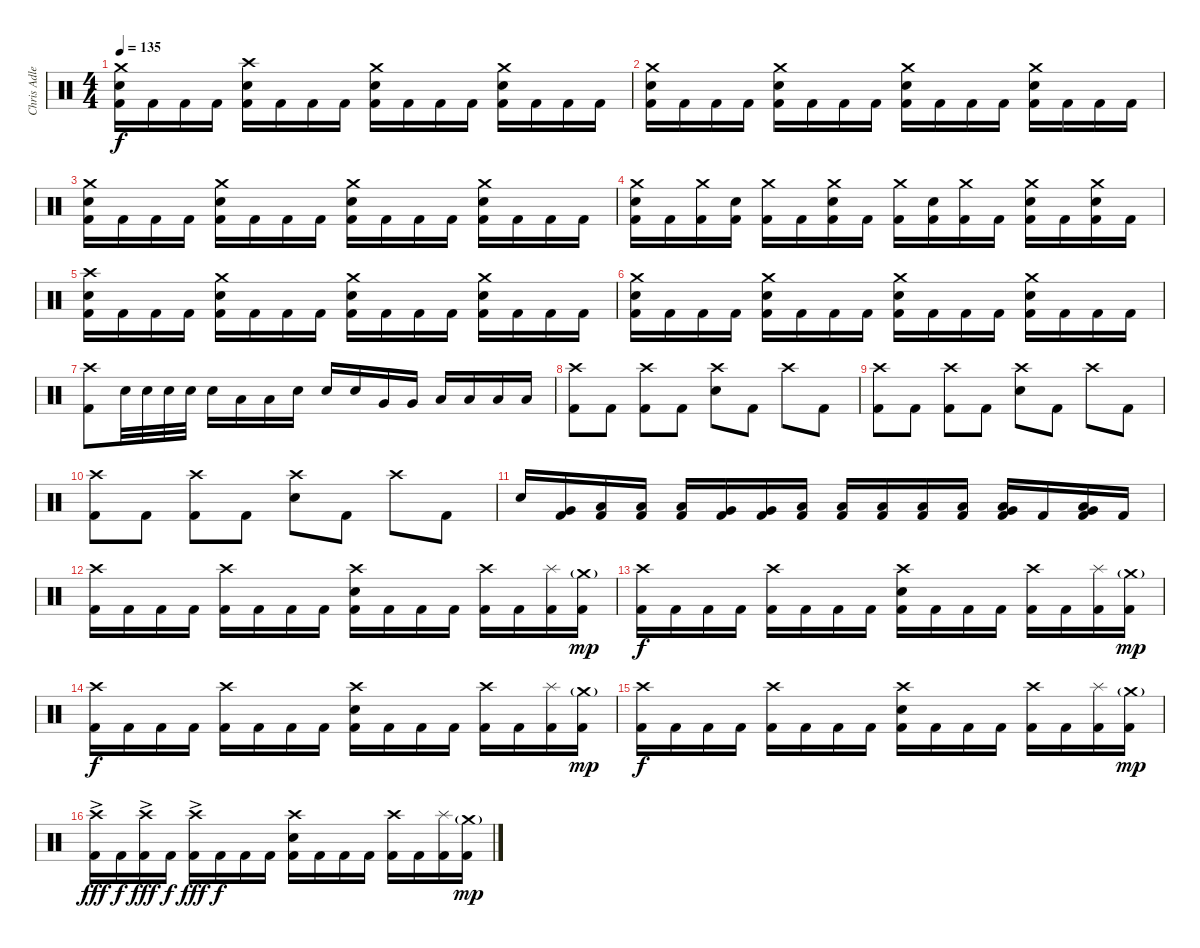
\track ("Chris Adler Drums)" "Chris Adle") {instrument percussion}
\staff {score}
\articulation defaults
\ts (4 4)
\tempo 135
\clef neutral
\ks c
("Crash medium (hit)" "Snare (hit) 2" "Kick (hit) 2").16{dy f} "Kick (hit) 2".16 "Kick (hit) 2".16 "Kick (hit) 2".16 ("Crash high (hit)" "Snare (hit) 2" "Kick (hit) 2").16 "Kick (hit) 2".16 "Kick (hit) 2".16 "Kick (hit) 2".16 ("Crash medium (hit)" "Snare (hit) 2" "Kick (hit) 2").16 "Kick (hit) 2".16 "Kick (hit) 2".16 "Kick (hit) 2".16 ("Crash medium (hit)" "Snare (hit) 2" "Kick (hit) 2").16 "Kick (hit) 2".16 "Kick (hit) 2".16 "Kick (hit) 2".16 |
("Crash medium (hit)" "Snare (hit) 2" "Kick (hit) 2").16 "Kick (hit) 2".16 "Kick (hit) 2".16 "Kick (hit) 2".16 ("Crash medium (hit)" "Snare (hit) 2" "Kick (hit) 2").16 "Kick (hit) 2".16 "Kick (hit) 2".16 "Kick (hit) 2".16 ("Crash medium (hit)" "Snare (hit) 2" "Kick (hit) 2").16 "Kick (hit) 2".16 "Kick (hit) 2".16 "Kick (hit) 2".16 ("Crash medium (hit)" "Snare (hit) 2" "Kick (hit) 2").16 "Kick (hit) 2".16 "Kick (hit) 2".16 "Kick (hit) 2".16 |
("Crash medium (hit)" "Snare (hit) 2" "Kick (hit) 2").16 "Kick (hit) 2".16 "Kick (hit) 2".16 "Kick (hit) 2".16 ("Crash medium (hit)" "Snare (hit) 2" "Kick (hit) 2").16 "Kick (hit) 2".16 "Kick (hit) 2".16 "Kick (hit) 2".16 ("Crash medium (hit)" "Snare (hit) 2" "Kick (hit) 2").16 "Kick (hit) 2".16 "Kick (hit) 2".16 "Kick (hit) 2".16 ("Crash medium (hit)" "Snare (hit) 2" "Kick (hit) 2").16 "Kick (hit) 2".16 "Kick (hit) 2".16 "Kick (hit) 2".16 |
("Crash medium (hit)" "Snare (hit) 2" "Kick (hit) 2").16 "Kick (hit) 2".16 ("Crash medium (hit)" "Kick (hit) 2").16 ("Snare (hit) 2" "Kick (hit) 2").16 ("Crash medium (hit)" "Kick (hit) 2").16 "Kick (hit) 2".16 ("Crash medium (hit)" "Snare (hit) 2" "Kick (hit) 2").16 "Kick (hit) 2".16 ("Crash medium (hit)" "Kick (hit) 2").16 ("Snare (hit) 2" "Kick (hit) 2").16 ("Crash medium (hit)" "Kick (hit) 2").16 "Kick (hit) 2".16 ("Crash medium (hit)" "Snare (hit) 2" "Kick (hit) 2").16 "Kick (hit) 2".16 ("Crash medium (hit)" "Snare (hit) 2" "Kick (hit) 2").16 "Kick (hit) 2".16 |
("Crash high (hit)" "Snare (hit) 2" "Kick (hit) 2").16 "Kick (hit) 2".16 "Kick (hit) 2".16 "Kick (hit) 2".16 ("Crash medium (hit)" "Snare (hit) 2" "Kick (hit) 2").16 "Kick (hit) 2".16 "Kick (hit) 2".16 "Kick (hit) 2".16 ("Crash medium (hit)" "Snare (hit) 2" "Kick (hit) 2").16 "Kick (hit) 2".16 "Kick (hit) 2".16 "Kick (hit) 2".16 ("Crash medium (hit)" "Snare (hit) 2" "Kick (hit) 2").16 "Kick (hit) 2".16 "Kick (hit) 2".16 "Kick (hit) 2".16 |
("Crash medium (hit)" "Snare (hit) 2" "Kick (hit) 2").16 "Kick (hit) 2".16 "Kick (hit) 2".16 "Kick (hit) 2".16 ("Crash medium (hit)" "Snare (hit) 2" "Kick (hit) 2").16 "Kick (hit) 2".16 "Kick (hit) 2".16 "Kick (hit) 2".16 ("Crash medium (hit)" "Snare (hit) 2" "Kick (hit) 2").16 "Kick (hit) 2".16 "Kick (hit) 2".16 "Kick (hit) 2".16 ("Crash medium (hit)" "Snare (hit) 2" "Kick (hit) 2").16 "Kick (hit) 2".16 "Kick (hit) 2".16 "Kick (hit) 2".16 |
("Kick (hit) 2" "Crash high (hit)").8 "Snare (hit) 2".32 "Snare (hit) 2".32 "Snare (hit) 2".32 "Snare (hit) 2".32 "Snare (hit) 2".16 "Low Tom (hit)".16 "Low Tom (hit)".16 "Snare (hit) 2".16 "Snare (hit) 2".16 "Snare (hit) 2".16 "Very Low Tom (hit)".16 "Very Low Tom (hit)".16 "Low Floor Tom (hit)".16 "Low Floor Tom (hit)".16 "Low Floor Tom (hit)".16 "Low Floor Tom (hit)".16 |
("Crash high (hit)" "Kick (hit) 2").8 "Kick (hit) 2".8 ("Crash high (hit)" "Kick (hit) 2").8 "Kick (hit) 2".8 ("Crash high (hit)" "Snare (hit) 2").8 "Kick (hit) 2".8 "Crash high (hit)".8 "Kick (hit) 2".8 |
("Crash high (hit)" "Kick (hit) 2").8 "Kick (hit) 2".8 ("Crash high (hit)" "Kick (hit) 2").8 "Kick (hit) 2".8 ("Crash high (hit)" "Snare (hit) 2").8 "Kick (hit) 2".8 "Crash high (hit)".8 "Kick (hit) 2".8 |
("Crash high (hit)" "Kick (hit) 2").8 "Kick (hit) 2".8 ("Crash high (hit)" "Kick (hit) 2").8 "Kick (hit) 2".8 ("Crash high (hit)" "Snare (hit) 2").8 "Kick (hit) 2".8 "Crash high (hit)".8 "Kick (hit) 2".8 |
"Snare (hit) 2".16 ("Kick (hit) 2" "Very Low Tom (hit)").16 ("Kick (hit) 2" "Low Floor Tom (hit)").16 ("Kick (hit) 2" "Low Floor Tom (hit)").16 ("Kick (hit) 2" "Low Floor Tom (hit)").16 ("Kick (hit) 2" "Very Low Tom (hit)").16 ("Kick (hit) 2" "Very Low Tom (hit)").16 ("Kick (hit) 2" "Low Floor Tom (hit)").16 ("Kick (hit) 2" "Low Floor Tom (hit)").16 ("Kick (hit) 2" "Low Floor Tom (hit)").16 ("Kick (hit) 2" "Low Floor Tom (hit)").16 ("Kick (hit) 2" "Low Floor Tom (hit)").16 ("Kick (hit) 2" "Low Tom (hit)" "Very Low Tom (hit)").16 "Kick (hit) 2".16 ("Kick (hit) 2" "Very Low Tom (hit)" "Low Tom (hit)").16 "Kick (hit) 2".16 |
("Crash high (hit)" "Kick (hit) 2").16 "Kick (hit) 2".16 "Kick (hit) 2".16 "Kick (hit) 2".16 ("Crash high (hit)" "Kick (hit) 2").16 "Kick (hit) 2".16 "Kick (hit) 2".16 "Kick (hit) 2".16 ("Crash high (hit)" "Snare (hit) 2" "Kick (hit) 2").16 "Kick (hit) 2".16 "Kick (hit) 2".16 "Kick (hit) 2".16 ("Crash high (hit)" "Kick (hit) 2").16 "Kick (hit) 2".16 ("Splash (hit)" "Kick (hit) 2").16 ("Crash medium (hit)"{g} "Kick (hit) 2").16{dy mp} |
("Crash high (hit)" "Kick (hit) 2").16{dy f} "Kick (hit) 2".16 "Kick (hit) 2".16 "Kick (hit) 2".16 ("Crash high (hit)" "Kick (hit) 2").16 "Kick (hit) 2".16 "Kick (hit) 2".16 "Kick (hit) 2".16 ("Crash high (hit)" "Snare (hit) 2" "Kick (hit) 2").16 "Kick (hit) 2".16 "Kick (hit) 2".16 "Kick (hit) 2".16 ("Crash high (hit)" "Kick (hit) 2").16 "Kick (hit) 2".16 ("Splash (hit)" "Kick (hit) 2").16 ("Crash medium (hit)"{g} "Kick (hit) 2").16{dy mp} |
("Crash high (hit)" "Kick (hit) 2").16{dy f} "Kick (hit) 2".16 "Kick (hit) 2".16 "Kick (hit) 2".16 ("Crash high (hit)" "Kick (hit) 2").16 "Kick (hit) 2".16 "Kick (hit) 2".16 "Kick (hit) 2".16 ("Crash high (hit)" "Snare (hit) 2" "Kick (hit) 2").16 "Kick (hit) 2".16 "Kick (hit) 2".16 "Kick (hit) 2".16 ("Crash high (hit)" "Kick (hit) 2").16 "Kick (hit) 2".16 ("Splash (hit)" "Kick (hit) 2").16 ("Crash medium (hit)"{g} "Kick (hit) 2").16{dy mp} |
("Crash high (hit)" "Kick (hit) 2").16{dy f} "Kick (hit) 2".16 "Kick (hit) 2".16 "Kick (hit) 2".16 ("Crash high (hit)" "Kick (hit) 2").16 "Kick (hit) 2".16 "Kick (hit) 2".16 "Kick (hit) 2".16 ("Crash high (hit)" "Snare (hit) 2" "Kick (hit) 2").16 "Kick (hit) 2".16 "Kick (hit) 2".16 "Kick (hit) 2".16 ("Crash high (hit)" "Kick (hit) 2").16 "Kick (hit) 2".16 ("Splash (hit)" "Kick (hit) 2").16 ("Crash medium (hit)"{g} "Kick (hit) 2").16{dy mp} |
("Crash high (hit)"{ac} "Kick (hit) 2").16{dy fff} "Kick (hit) 2".16{dy f} ("Crash high (hit)"{ac} "Kick (hit) 2").16{dy fff} "Kick (hit) 2".16{dy f} ("Crash high (hit)"{ac} "Kick (hit) 2").16{dy fff} "Kick (hit) 2".16{dy f} "Kick (hit) 2".16 "Kick (hit) 2".16 ("Crash high (hit)" "Snare (hit) 2" "Kick (hit) 2").16 "Kick (hit) 2".16 "Kick (hit) 2".16 "Kick (hit) 2".16 ("Crash high (hit)" "Kick (hit) 2").16 "Kick (hit) 2".16 ("Splash (hit)" "Kick (hit) 2").16 ("Crash medium (hit)"{g} "Kick (hit) 2").16{dy mp}
